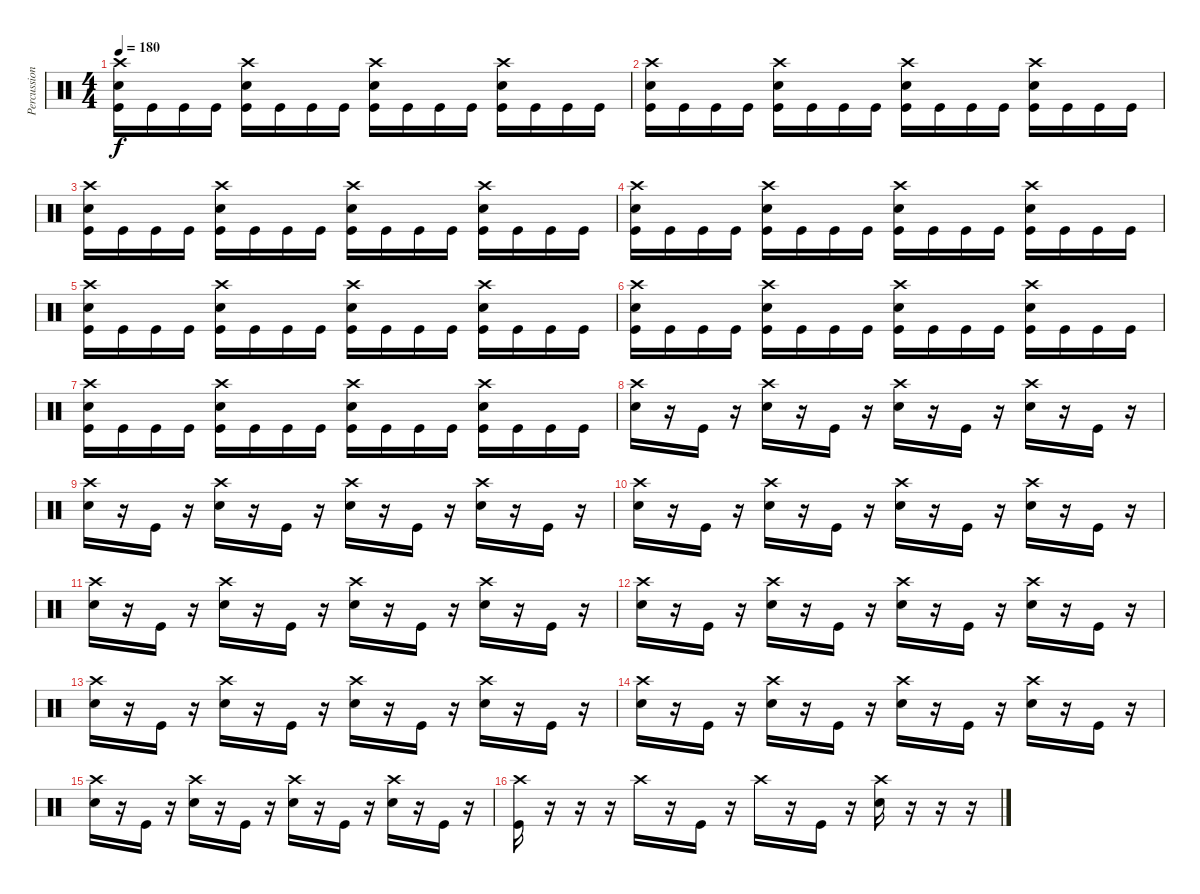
\track ("Percussion" "Percussion") {instrument percussion}
\staff {score}
\articulation defaults
\ts (4 4)
\tempo 180
\clef neutral
\ks c
("Crash high (hit)" "Electric Snare (hit)" "Kick (hit)").16{dy f} "Kick (hit)".16 "Kick (hit)".16 "Kick (hit)".16 ("Crash high (hit)" "Electric Snare (hit)" "Kick (hit)").16 "Kick (hit)".16 "Kick (hit)".16 "Kick (hit)".16 ("Crash high (hit)" "Electric Snare (hit)" "Kick (hit)").16 "Kick (hit)".16 "Kick (hit)".16 "Kick (hit)".16 ("Crash high (hit)" "Electric Snare (hit)" "Kick (hit)").16 "Kick (hit)".16 "Kick (hit)".16 "Kick (hit)".16 |
("Crash high (hit)" "Electric Snare (hit)" "Kick (hit)").16 "Kick (hit)".16 "Kick (hit)".16 "Kick (hit)".16 ("Crash high (hit)" "Electric Snare (hit)" "Kick (hit)").16 "Kick (hit)".16 "Kick (hit)".16 "Kick (hit)".16 ("Crash high (hit)" "Electric Snare (hit)" "Kick (hit)").16 "Kick (hit)".16 "Kick (hit)".16 "Kick (hit)".16 ("Crash high (hit)" "Electric Snare (hit)" "Kick (hit)").16 "Kick (hit)".16 "Kick (hit)".16 "Kick (hit)".16 |
("Crash high (hit)" "Electric Snare (hit)" "Kick (hit)").16 "Kick (hit)".16 "Kick (hit)".16 "Kick (hit)".16 ("Crash high (hit)" "Electric Snare (hit)" "Kick (hit)").16 "Kick (hit)".16 "Kick (hit)".16 "Kick (hit)".16 ("Crash high (hit)" "Electric Snare (hit)" "Kick (hit)").16 "Kick (hit)".16 "Kick (hit)".16 "Kick (hit)".16 ("Crash high (hit)" "Electric Snare (hit)" "Kick (hit)").16 "Kick (hit)".16 "Kick (hit)".16 "Kick (hit)".16 |
("Crash high (hit)" "Electric Snare (hit)" "Kick (hit)").16 "Kick (hit)".16 "Kick (hit)".16 "Kick (hit)".16 ("Crash high (hit)" "Electric Snare (hit)" "Kick (hit)").16 "Kick (hit)".16 "Kick (hit)".16 "Kick (hit)".16 ("Crash high (hit)" "Electric Snare (hit)" "Kick (hit)").16 "Kick (hit)".16 "Kick (hit)".16 "Kick (hit)".16 ("Crash high (hit)" "Electric Snare (hit)" "Kick (hit)").16 "Kick (hit)".16 "Kick (hit)".16 "Kick (hit)".16 |
("Crash high (hit)" "Electric Snare (hit)" "Kick (hit)").16 "Kick (hit)".16 "Kick (hit)".16 "Kick (hit)".16 ("Crash high (hit)" "Electric Snare (hit)" "Kick (hit)").16 "Kick (hit)".16 "Kick (hit)".16 "Kick (hit)".16 ("Crash high (hit)" "Electric Snare (hit)" "Kick (hit)").16 "Kick (hit)".16 "Kick (hit)".16 "Kick (hit)".16 ("Crash high (hit)" "Electric Snare (hit)" "Kick (hit)").16 "Kick (hit)".16 "Kick (hit)".16 "Kick (hit)".16 |
("Crash high (hit)" "Electric Snare (hit)" "Kick (hit)").16 "Kick (hit)".16 "Kick (hit)".16 "Kick (hit)".16 ("Crash high (hit)" "Electric Snare (hit)" "Kick (hit)").16 "Kick (hit)".16 "Kick (hit)".16 "Kick (hit)".16 ("Crash high (hit)" "Electric Snare (hit)" "Kick (hit)").16 "Kick (hit)".16 "Kick (hit)".16 "Kick (hit)".16 ("Crash high (hit)" "Electric Snare (hit)" "Kick (hit)").16 "Kick (hit)".16 "Kick (hit)".16 "Kick (hit)".16 |
("Crash high (hit)" "Electric Snare (hit)" "Kick (hit)").16 "Kick (hit)".16 "Kick (hit)".16 "Kick (hit)".16 ("Crash high (hit)" "Electric Snare (hit)" "Kick (hit)").16 "Kick (hit)".16 "Kick (hit)".16 "Kick (hit)".16 ("Crash high (hit)" "Electric Snare (hit)" "Kick (hit)").16 "Kick (hit)".16 "Kick (hit)".16 "Kick (hit)".16 ("Crash high (hit)" "Electric Snare (hit)" "Kick (hit)").16 "Kick (hit)".16 "Kick (hit)".16 "Kick (hit)".16 |
("Crash high (hit)" "Electric Snare (hit)").16 r.16 "Kick (hit)".16 r.16 ("Crash high (hit)" "Electric Snare (hit)").16 r.16 "Kick (hit)".16 r.16 ("Crash high (hit)" "Electric Snare (hit)").16 r.16 "Kick (hit)".16 r.16 ("Crash high (hit)" "Electric Snare (hit)").16 r.16 "Kick (hit)".16 r.16 |
("Crash high (hit)" "Electric Snare (hit)").16 r.16 "Kick (hit)".16 r.16 ("Crash high (hit)" "Electric Snare (hit)").16 r.16 "Kick (hit)".16 r.16 ("Crash high (hit)" "Electric Snare (hit)").16 r.16 "Kick (hit)".16 r.16 ("Crash high (hit)" "Electric Snare (hit)").16 r.16 "Kick (hit)".16 r.16 |
("Crash high (hit)" "Electric Snare (hit)").16 r.16 "Kick (hit)".16 r.16 ("Crash high (hit)" "Electric Snare (hit)").16 r.16 "Kick (hit)".16 r.16 ("Crash high (hit)" "Electric Snare (hit)").16 r.16 "Kick (hit)".16 r.16 ("Crash high (hit)" "Electric Snare (hit)").16 r.16 "Kick (hit)".16 r.16 |
("Crash high (hit)" "Electric Snare (hit)").16 r.16 "Kick (hit)".16 r.16 ("Crash high (hit)" "Electric Snare (hit)").16 r.16 "Kick (hit)".16 r.16 ("Crash high (hit)" "Electric Snare (hit)").16 r.16 "Kick (hit)".16 r.16 ("Crash high (hit)" "Electric Snare (hit)").16 r.16 "Kick (hit)".16 r.16 |
("Crash high (hit)" "Electric Snare (hit)").16 r.16 "Kick (hit)".16 r.16 ("Crash high (hit)" "Electric Snare (hit)").16 r.16 "Kick (hit)".16 r.16 ("Crash high (hit)" "Electric Snare (hit)").16 r.16 "Kick (hit)".16 r.16 ("Crash high (hit)" "Electric Snare (hit)").16 r.16 "Kick (hit)".16 r.16 |
("Crash high (hit)" "Electric Snare (hit)").16 r.16 "Kick (hit)".16 r.16 ("Crash high (hit)" "Electric Snare (hit)").16 r.16 "Kick (hit)".16 r.16 ("Crash high (hit)" "Electric Snare (hit)").16 r.16 "Kick (hit)".16 r.16 ("Crash high (hit)" "Electric Snare (hit)").16 r.16 "Kick (hit)".16 r.16 |
("Crash high (hit)" "Electric Snare (hit)").16 r.16 "Kick (hit)".16 r.16 ("Crash high (hit)" "Electric Snare (hit)").16 r.16 "Kick (hit)".16 r.16 ("Crash high (hit)" "Electric Snare (hit)").16 r.16 "Kick (hit)".16 r.16 ("Crash high (hit)" "Electric Snare (hit)").16 r.16 "Kick (hit)".16 r.16 |
("Crash high (hit)" "Electric Snare (hit)").16 r.16 "Kick (hit)".16 r.16 ("Crash high (hit)" "Electric Snare (hit)").16 r.16 "Kick (hit)".16 r.16 ("Crash high (hit)" "Electric Snare (hit)").16 r.16 "Kick (hit)".16 r.16 ("Crash high (hit)" "Electric Snare (hit)").16 r.16 "Kick (hit)".16 r.16 |
("Crash high (hit)" "Kick (hit)").16 r.16 r.16 r.16 "Crash high (hit)".16 r.16 "Kick (hit)".16 r.16 "Crash high (hit)".16 r.16 "Kick (hit)".16 r.16 ("Crash high (hit)" "Electric Snare (hit)").16 r.16 r.16 r.16
